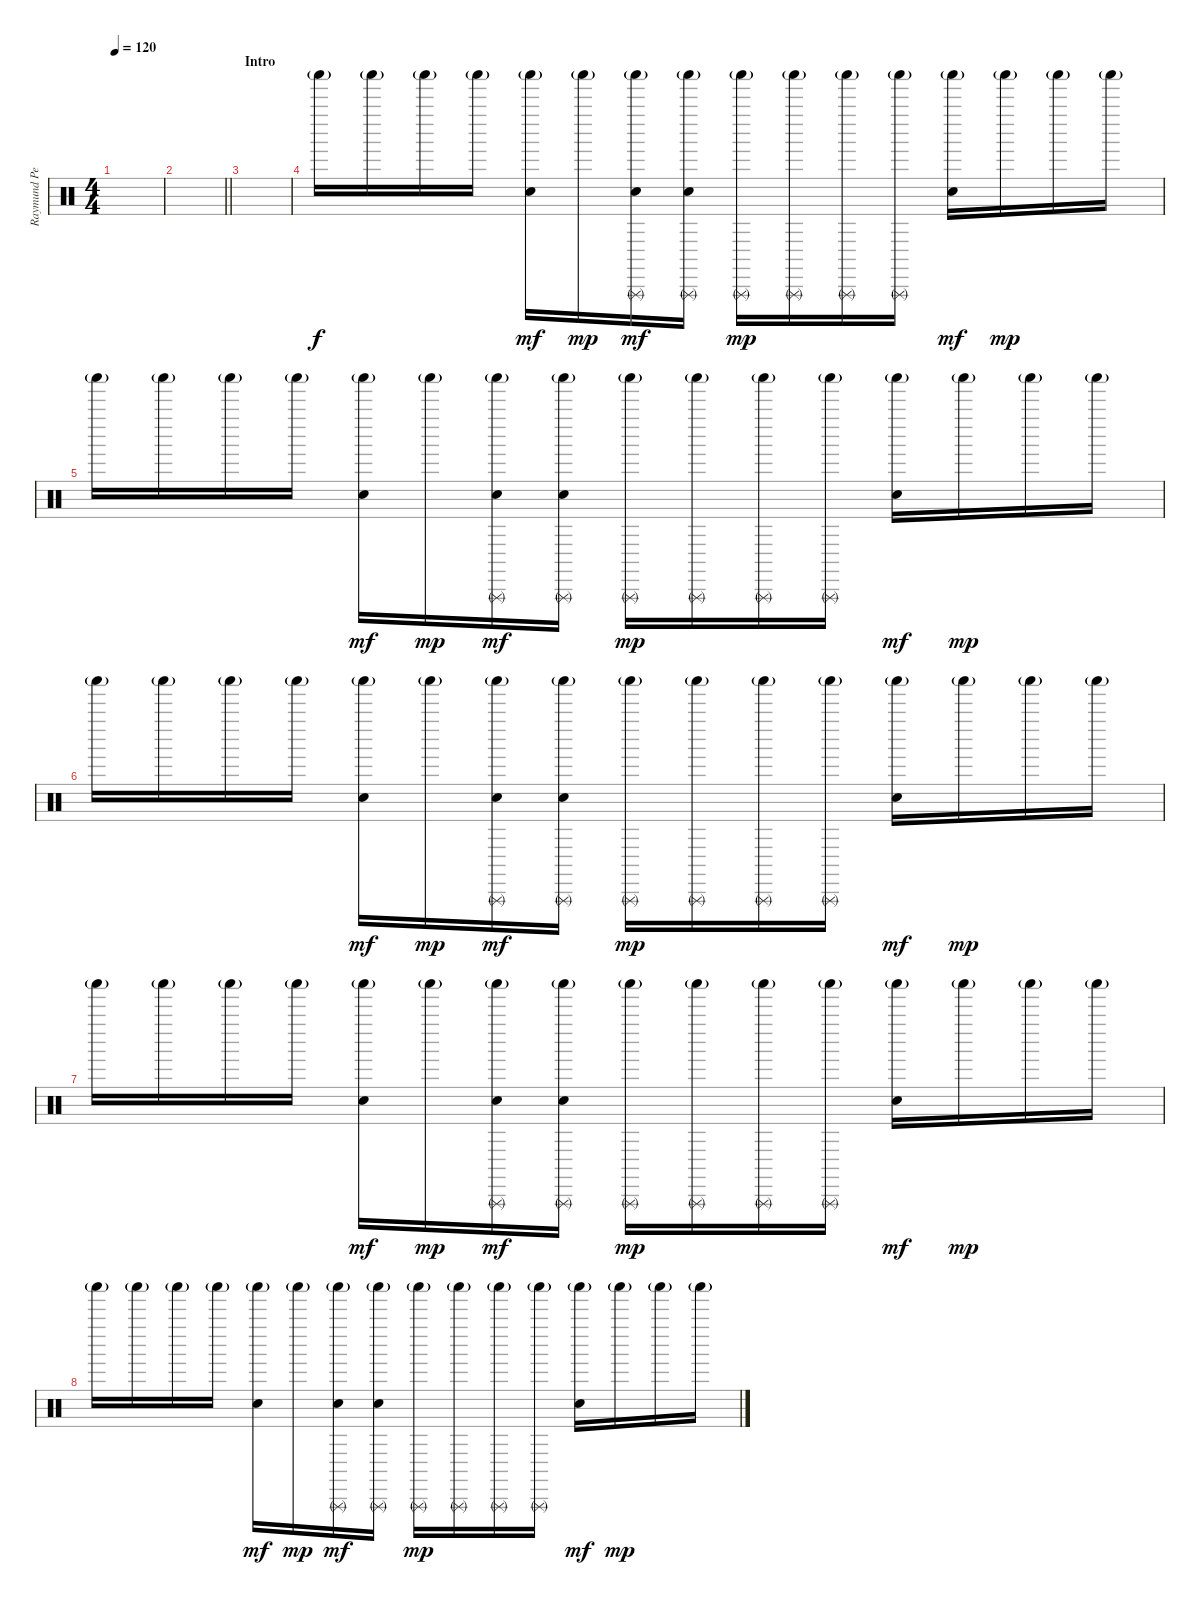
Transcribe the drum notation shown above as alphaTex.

\track ("Raymund Percussion" "Raymund Pe") {instrument percussion}
\staff {score}
\articulation defaults
\ts (4 4)
\tempo 120
\clef neutral
\ks c
|
\barLineRight lightlight
|
\section ("" "Intro")
|
"Shaker (hit)"{g}.16 "Shaker (hit)"{g}.16 "Shaker (hit)"{g}.16 "Shaker (hit)"{g}.16 ("Shaker (hit)"{g} "Hand Clap (hit)").16{dy mf} "Shaker (hit)"{g}.16{dy mp} ("Shaker (hit)"{g} "Hand Clap (hit)" "Triangle (rnute)").16{dy mf} ("Shaker (hit)"{g} "Hand Clap (hit)" "Triangle (rnute)").16 ("Shaker (hit)"{g} "Triangle (rnute)").16{dy mp} ("Shaker (hit)"{g} "Triangle (rnute)").16 ("Shaker (hit)"{g} "Triangle (rnute)").16 ("Shaker (hit)"{g} "Triangle (rnute)").16 ("Shaker (hit)"{g} "Hand Clap (hit)").16{dy mf} "Shaker (hit)"{g}.16{dy mp} "Shaker (hit)"{g}.16 "Shaker (hit)"{g}.16 |
"Shaker (hit)"{g}.16 "Shaker (hit)"{g}.16 "Shaker (hit)"{g}.16 "Shaker (hit)"{g}.16 ("Shaker (hit)"{g} "Hand Clap (hit)").16{dy mf} "Shaker (hit)"{g}.16{dy mp} ("Shaker (hit)"{g} "Hand Clap (hit)" "Triangle (rnute)").16{dy mf} ("Shaker (hit)"{g} "Hand Clap (hit)" "Triangle (rnute)").16 ("Shaker (hit)"{g} "Triangle (rnute)").16{dy mp} ("Shaker (hit)"{g} "Triangle (rnute)").16 ("Shaker (hit)"{g} "Triangle (rnute)").16 ("Shaker (hit)"{g} "Triangle (rnute)").16 ("Shaker (hit)"{g} "Hand Clap (hit)").16{dy mf} "Shaker (hit)"{g}.16{dy mp} "Shaker (hit)"{g}.16 "Shaker (hit)"{g}.16 |
"Shaker (hit)"{g}.16 "Shaker (hit)"{g}.16 "Shaker (hit)"{g}.16 "Shaker (hit)"{g}.16 ("Shaker (hit)"{g} "Hand Clap (hit)").16{dy mf} "Shaker (hit)"{g}.16{dy mp} ("Shaker (hit)"{g} "Hand Clap (hit)" "Triangle (rnute)").16{dy mf} ("Shaker (hit)"{g} "Hand Clap (hit)" "Triangle (rnute)").16 ("Shaker (hit)"{g} "Triangle (rnute)").16{dy mp} ("Shaker (hit)"{g} "Triangle (rnute)").16 ("Shaker (hit)"{g} "Triangle (rnute)").16 ("Shaker (hit)"{g} "Triangle (rnute)").16 ("Shaker (hit)"{g} "Hand Clap (hit)").16{dy mf} "Shaker (hit)"{g}.16{dy mp} "Shaker (hit)"{g}.16 "Shaker (hit)"{g}.16 |
"Shaker (hit)"{g}.16 "Shaker (hit)"{g}.16 "Shaker (hit)"{g}.16 "Shaker (hit)"{g}.16 ("Shaker (hit)"{g} "Hand Clap (hit)").16{dy mf} "Shaker (hit)"{g}.16{dy mp} ("Shaker (hit)"{g} "Hand Clap (hit)" "Triangle (rnute)").16{dy mf} ("Shaker (hit)"{g} "Hand Clap (hit)" "Triangle (rnute)").16 ("Shaker (hit)"{g} "Triangle (rnute)").16{dy mp} ("Shaker (hit)"{g} "Triangle (rnute)").16 ("Shaker (hit)"{g} "Triangle (rnute)").16 ("Shaker (hit)"{g} "Triangle (rnute)").16 ("Shaker (hit)"{g} "Hand Clap (hit)").16{dy mf} "Shaker (hit)"{g}.16{dy mp} "Shaker (hit)"{g}.16 "Shaker (hit)"{g}.16 |
"Shaker (hit)"{g}.16 "Shaker (hit)"{g}.16 "Shaker (hit)"{g}.16 "Shaker (hit)"{g}.16 ("Shaker (hit)"{g} "Hand Clap (hit)").16{dy mf} "Shaker (hit)"{g}.16{dy mp} ("Shaker (hit)"{g} "Hand Clap (hit)" "Triangle (rnute)").16{dy mf} ("Shaker (hit)"{g} "Hand Clap (hit)" "Triangle (rnute)").16 ("Shaker (hit)"{g} "Triangle (rnute)").16{dy mp} ("Shaker (hit)"{g} "Triangle (rnute)").16 ("Shaker (hit)"{g} "Triangle (rnute)").16 ("Shaker (hit)"{g} "Triangle (rnute)").16 ("Shaker (hit)"{g} "Hand Clap (hit)").16{dy mf} "Shaker (hit)"{g}.16{dy mp} "Shaker (hit)"{g}.16 "Shaker (hit)"{g}.16
